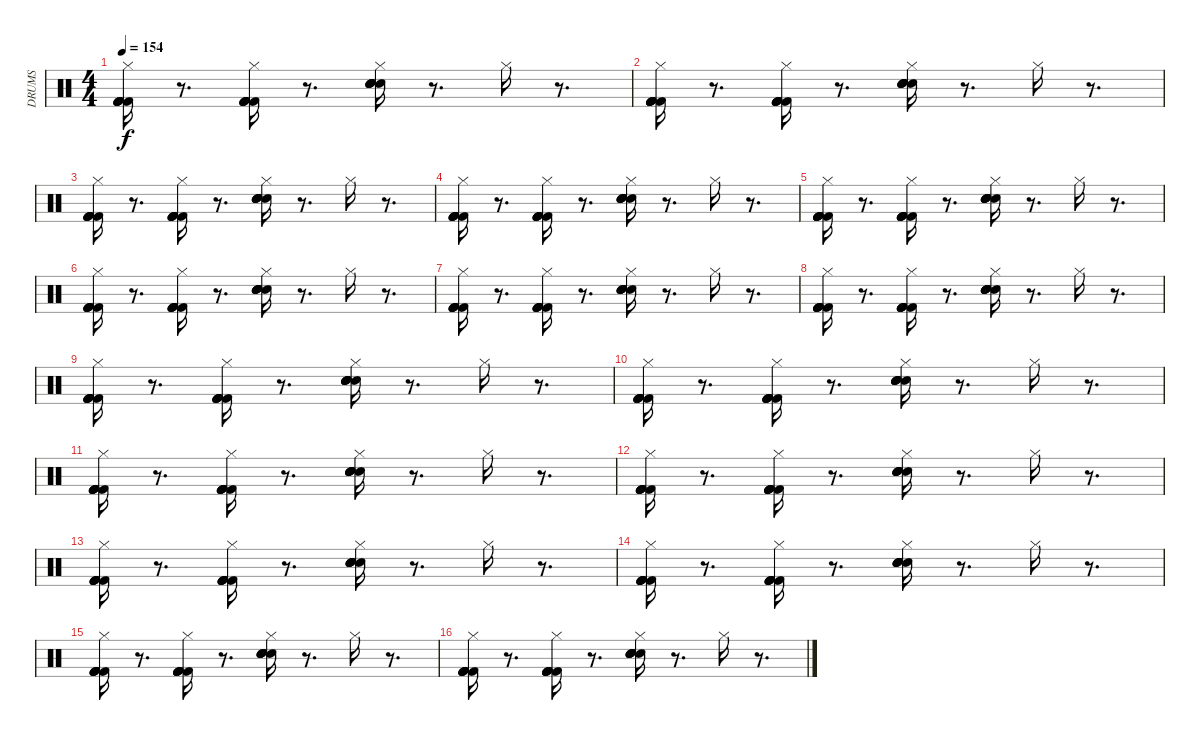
\track ("DRUMS" "DRUMS") {instrument percussion}
\staff {score}
\articulation defaults
\ts (4 4)
\tempo 154
\clef neutral
\ks c
("Hi-Hat (closed)" "Kick (hit) 2" "Kick (hit) 2" "Kick (hit) 2" "Kick (hit) 2" "Kick (hit) 2").16{dy f} r.8{d} ("Hi-Hat (closed)" "Kick (hit) 2" "Kick (hit) 2" "Kick (hit) 2" "Kick (hit) 2" "Kick (hit) 2").16 r.8{d} ("Hi-Hat (closed)" "Snare (hit) 2" "Snare (hit) 2" "Snare (hit) 2" "Snare (hit) 2" "Snare (hit) 2").16 r.8{d} "Hi-Hat (closed)".16 r.8{d} |
("Hi-Hat (closed)" "Kick (hit) 2" "Kick (hit) 2" "Kick (hit) 2" "Kick (hit) 2" "Kick (hit) 2").16 r.8{d} ("Hi-Hat (closed)" "Kick (hit) 2" "Kick (hit) 2" "Kick (hit) 2" "Kick (hit) 2" "Kick (hit) 2").16 r.8{d} ("Hi-Hat (closed)" "Snare (hit) 2" "Snare (hit) 2" "Snare (hit) 2" "Snare (hit) 2" "Snare (hit) 2").16 r.8{d} "Hi-Hat (closed)".16 r.8{d} |
("Hi-Hat (closed)" "Kick (hit) 2" "Kick (hit) 2" "Kick (hit) 2" "Kick (hit) 2" "Kick (hit) 2").16 r.8{d} ("Hi-Hat (closed)" "Kick (hit) 2" "Kick (hit) 2" "Kick (hit) 2" "Kick (hit) 2" "Kick (hit) 2").16 r.8{d} ("Hi-Hat (closed)" "Snare (hit) 2" "Snare (hit) 2" "Snare (hit) 2" "Snare (hit) 2" "Snare (hit) 2").16 r.8{d} "Hi-Hat (closed)".16 r.8{d} |
("Hi-Hat (closed)" "Kick (hit) 2" "Kick (hit) 2" "Kick (hit) 2" "Kick (hit) 2" "Kick (hit) 2").16 r.8{d} ("Hi-Hat (closed)" "Kick (hit) 2" "Kick (hit) 2" "Kick (hit) 2" "Kick (hit) 2" "Kick (hit) 2").16 r.8{d} ("Hi-Hat (closed)" "Snare (hit) 2" "Snare (hit) 2" "Snare (hit) 2" "Snare (hit) 2" "Snare (hit) 2").16 r.8{d} "Hi-Hat (closed)".16 r.8{d} |
("Hi-Hat (closed)" "Kick (hit) 2" "Kick (hit) 2" "Kick (hit) 2" "Kick (hit) 2" "Kick (hit) 2").16 r.8{d} ("Hi-Hat (closed)" "Kick (hit) 2" "Kick (hit) 2" "Kick (hit) 2" "Kick (hit) 2" "Kick (hit) 2").16 r.8{d} ("Hi-Hat (closed)" "Snare (hit) 2" "Snare (hit) 2" "Snare (hit) 2" "Snare (hit) 2" "Snare (hit) 2").16 r.8{d} "Hi-Hat (closed)".16 r.8{d} |
("Hi-Hat (closed)" "Kick (hit) 2" "Kick (hit) 2" "Kick (hit) 2" "Kick (hit) 2" "Kick (hit) 2").16 r.8{d} ("Hi-Hat (closed)" "Kick (hit) 2" "Kick (hit) 2" "Kick (hit) 2" "Kick (hit) 2" "Kick (hit) 2").16 r.8{d} ("Hi-Hat (closed)" "Snare (hit) 2" "Snare (hit) 2" "Snare (hit) 2" "Snare (hit) 2" "Snare (hit) 2").16 r.8{d} "Hi-Hat (closed)".16 r.8{d} |
("Hi-Hat (closed)" "Kick (hit) 2" "Kick (hit) 2" "Kick (hit) 2" "Kick (hit) 2" "Kick (hit) 2").16 r.8{d} ("Hi-Hat (closed)" "Kick (hit) 2" "Kick (hit) 2" "Kick (hit) 2" "Kick (hit) 2" "Kick (hit) 2").16 r.8{d} ("Hi-Hat (closed)" "Snare (hit) 2" "Snare (hit) 2" "Snare (hit) 2" "Snare (hit) 2" "Snare (hit) 2").16 r.8{d} "Hi-Hat (closed)".16 r.8{d} |
("Hi-Hat (closed)" "Kick (hit) 2" "Kick (hit) 2" "Kick (hit) 2" "Kick (hit) 2" "Kick (hit) 2").16 r.8{d} ("Hi-Hat (closed)" "Kick (hit) 2" "Kick (hit) 2" "Kick (hit) 2" "Kick (hit) 2" "Kick (hit) 2").16 r.8{d} ("Hi-Hat (closed)" "Snare (hit) 2" "Snare (hit) 2" "Snare (hit) 2" "Snare (hit) 2" "Snare (hit) 2").16 r.8{d} "Hi-Hat (closed)".16 r.8{d} |
("Hi-Hat (closed)" "Kick (hit) 2" "Kick (hit) 2" "Kick (hit) 2" "Kick (hit) 2" "Kick (hit) 2").16 r.8{d} ("Hi-Hat (closed)" "Kick (hit) 2" "Kick (hit) 2" "Kick (hit) 2" "Kick (hit) 2" "Kick (hit) 2").16 r.8{d} ("Hi-Hat (closed)" "Snare (hit) 2" "Snare (hit) 2" "Snare (hit) 2" "Snare (hit) 2" "Snare (hit) 2").16 r.8{d} "Hi-Hat (closed)".16 r.8{d} |
("Hi-Hat (closed)" "Kick (hit) 2" "Kick (hit) 2" "Kick (hit) 2" "Kick (hit) 2" "Kick (hit) 2").16 r.8{d} ("Hi-Hat (closed)" "Kick (hit) 2" "Kick (hit) 2" "Kick (hit) 2" "Kick (hit) 2" "Kick (hit) 2").16 r.8{d} ("Hi-Hat (closed)" "Snare (hit) 2" "Snare (hit) 2" "Snare (hit) 2" "Snare (hit) 2" "Snare (hit) 2").16 r.8{d} "Hi-Hat (closed)".16 r.8{d} |
("Hi-Hat (closed)" "Kick (hit) 2" "Kick (hit) 2" "Kick (hit) 2" "Kick (hit) 2" "Kick (hit) 2").16 r.8{d} ("Hi-Hat (closed)" "Kick (hit) 2" "Kick (hit) 2" "Kick (hit) 2" "Kick (hit) 2" "Kick (hit) 2").16 r.8{d} ("Hi-Hat (closed)" "Snare (hit) 2" "Snare (hit) 2" "Snare (hit) 2" "Snare (hit) 2" "Snare (hit) 2").16 r.8{d} "Hi-Hat (closed)".16 r.8{d} |
("Hi-Hat (closed)" "Kick (hit) 2" "Kick (hit) 2" "Kick (hit) 2" "Kick (hit) 2" "Kick (hit) 2").16 r.8{d} ("Hi-Hat (closed)" "Kick (hit) 2" "Kick (hit) 2" "Kick (hit) 2" "Kick (hit) 2" "Kick (hit) 2").16 r.8{d} ("Hi-Hat (closed)" "Snare (hit) 2" "Snare (hit) 2" "Snare (hit) 2" "Snare (hit) 2" "Snare (hit) 2").16 r.8{d} "Hi-Hat (closed)".16 r.8{d} |
("Hi-Hat (closed)" "Kick (hit) 2" "Kick (hit) 2" "Kick (hit) 2" "Kick (hit) 2" "Kick (hit) 2").16 r.8{d} ("Hi-Hat (closed)" "Kick (hit) 2" "Kick (hit) 2" "Kick (hit) 2" "Kick (hit) 2" "Kick (hit) 2").16 r.8{d} ("Hi-Hat (closed)" "Snare (hit) 2" "Snare (hit) 2" "Snare (hit) 2" "Snare (hit) 2" "Snare (hit) 2").16 r.8{d} "Hi-Hat (closed)".16 r.8{d} |
("Hi-Hat (closed)" "Kick (hit) 2" "Kick (hit) 2" "Kick (hit) 2" "Kick (hit) 2" "Kick (hit) 2").16 r.8{d} ("Hi-Hat (closed)" "Kick (hit) 2" "Kick (hit) 2" "Kick (hit) 2" "Kick (hit) 2" "Kick (hit) 2").16 r.8{d} ("Hi-Hat (closed)" "Snare (hit) 2" "Snare (hit) 2" "Snare (hit) 2" "Snare (hit) 2" "Snare (hit) 2").16 r.8{d} "Hi-Hat (closed)".16 r.8{d} |
("Hi-Hat (closed)" "Kick (hit) 2" "Kick (hit) 2" "Kick (hit) 2" "Kick (hit) 2" "Kick (hit) 2").16 r.8{d} ("Hi-Hat (closed)" "Kick (hit) 2" "Kick (hit) 2" "Kick (hit) 2" "Kick (hit) 2" "Kick (hit) 2").16 r.8{d} ("Hi-Hat (closed)" "Snare (hit) 2" "Snare (hit) 2" "Snare (hit) 2" "Snare (hit) 2" "Snare (hit) 2").16 r.8{d} "Hi-Hat (closed)".16 r.8{d} |
("Hi-Hat (closed)" "Kick (hit) 2" "Kick (hit) 2" "Kick (hit) 2" "Kick (hit) 2" "Kick (hit) 2").16 r.8{d} ("Hi-Hat (closed)" "Kick (hit) 2" "Kick (hit) 2" "Kick (hit) 2" "Kick (hit) 2" "Kick (hit) 2").16 r.8{d} ("Hi-Hat (closed)" "Snare (hit) 2" "Snare (hit) 2" "Snare (hit) 2" "Snare (hit) 2" "Snare (hit) 2").16 r.8{d} "Hi-Hat (closed)".16 r.8{d}
